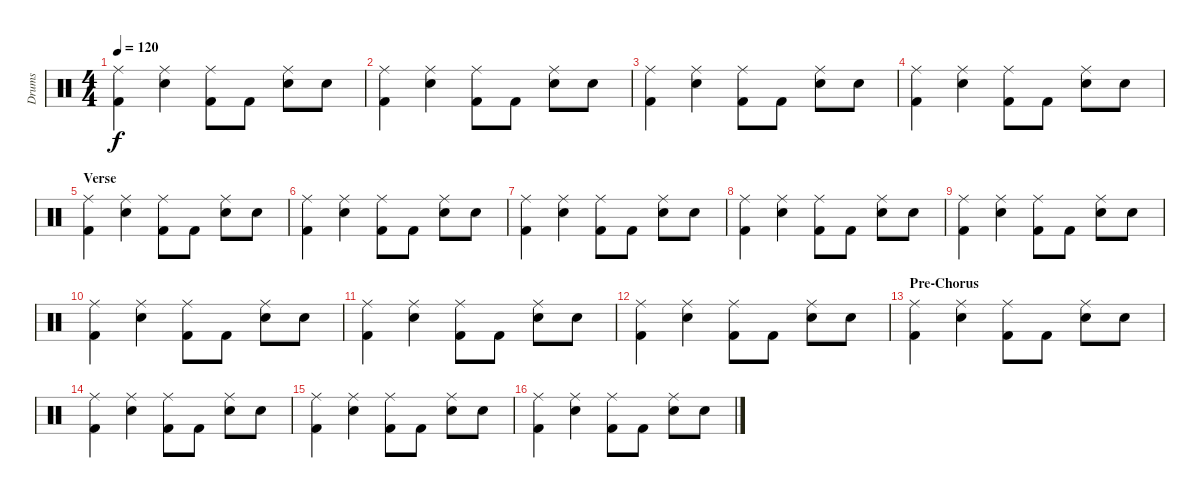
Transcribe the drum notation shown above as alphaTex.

\track ("Drums" "Drums") {instrument percussion}
\staff {score}
\articulation defaults
\ts (4 4)
\tempo 120
\clef neutral
\ks c
("Ride (middle)" "Kick (hit) 2").4{dy f} ("Ride (middle)" "Snare (hit) 2").4 ("Ride (middle)" "Kick (hit) 2").8 "Kick (hit) 2".8 ("Ride (middle)" "Snare (hit) 2").8 "Snare (hit) 2".8 |
("Ride (middle)" "Kick (hit) 2").4 ("Ride (middle)" "Snare (hit) 2").4 ("Ride (middle)" "Kick (hit) 2").8 "Kick (hit) 2".8 ("Ride (middle)" "Snare (hit) 2").8 "Snare (hit) 2".8 |
("Ride (middle)" "Kick (hit) 2").4 ("Ride (middle)" "Snare (hit) 2").4 ("Ride (middle)" "Kick (hit) 2").8 "Kick (hit) 2".8 ("Ride (middle)" "Snare (hit) 2").8 "Snare (hit) 2".8 |
("Ride (middle)" "Kick (hit) 2").4 ("Ride (middle)" "Snare (hit) 2").4 ("Ride (middle)" "Kick (hit) 2").8 "Kick (hit) 2".8 ("Ride (middle)" "Snare (hit) 2").8 "Snare (hit) 2".8 |
\section ("" "Verse")
("Ride (middle)" "Kick (hit) 2").4 ("Ride (middle)" "Snare (hit) 2").4 ("Ride (middle)" "Kick (hit) 2").8 "Kick (hit) 2".8 ("Ride (middle)" "Snare (hit) 2").8 "Snare (hit) 2".8 |
("Ride (middle)" "Kick (hit) 2").4 ("Ride (middle)" "Snare (hit) 2").4 ("Ride (middle)" "Kick (hit) 2").8 "Kick (hit) 2".8 ("Ride (middle)" "Snare (hit) 2").8 "Snare (hit) 2".8 |
("Ride (middle)" "Kick (hit) 2").4 ("Ride (middle)" "Snare (hit) 2").4 ("Ride (middle)" "Kick (hit) 2").8 "Kick (hit) 2".8 ("Ride (middle)" "Snare (hit) 2").8 "Snare (hit) 2".8 |
("Ride (middle)" "Kick (hit) 2").4 ("Ride (middle)" "Snare (hit) 2").4 ("Ride (middle)" "Kick (hit) 2").8 "Kick (hit) 2".8 ("Ride (middle)" "Snare (hit) 2").8 "Snare (hit) 2".8 |
("Ride (middle)" "Kick (hit) 2").4 ("Ride (middle)" "Snare (hit) 2").4 ("Ride (middle)" "Kick (hit) 2").8 "Kick (hit) 2".8 ("Ride (middle)" "Snare (hit) 2").8 "Snare (hit) 2".8 |
("Ride (middle)" "Kick (hit) 2").4 ("Ride (middle)" "Snare (hit) 2").4 ("Ride (middle)" "Kick (hit) 2").8 "Kick (hit) 2".8 ("Ride (middle)" "Snare (hit) 2").8 "Snare (hit) 2".8 |
("Ride (middle)" "Kick (hit) 2").4 ("Ride (middle)" "Snare (hit) 2").4 ("Ride (middle)" "Kick (hit) 2").8 "Kick (hit) 2".8 ("Ride (middle)" "Snare (hit) 2").8 "Snare (hit) 2".8 |
("Ride (middle)" "Kick (hit) 2").4 ("Ride (middle)" "Snare (hit) 2").4 ("Ride (middle)" "Kick (hit) 2").8 "Kick (hit) 2".8 ("Ride (middle)" "Snare (hit) 2").8 "Snare (hit) 2".8 |
\section ("" "Pre-Chorus")
("Ride (middle)" "Kick (hit) 2").4 ("Ride (middle)" "Snare (hit) 2").4 ("Ride (middle)" "Kick (hit) 2").8 "Kick (hit) 2".8 ("Ride (middle)" "Snare (hit) 2").8 "Snare (hit) 2".8 |
("Ride (middle)" "Kick (hit) 2").4 ("Ride (middle)" "Snare (hit) 2").4 ("Ride (middle)" "Kick (hit) 2").8 "Kick (hit) 2".8 ("Ride (middle)" "Snare (hit) 2").8 "Snare (hit) 2".8 |
("Ride (middle)" "Kick (hit) 2").4 ("Ride (middle)" "Snare (hit) 2").4 ("Ride (middle)" "Kick (hit) 2").8 "Kick (hit) 2".8 ("Ride (middle)" "Snare (hit) 2").8 "Snare (hit) 2".8 |
("Ride (middle)" "Kick (hit) 2").4 ("Ride (middle)" "Snare (hit) 2").4 ("Ride (middle)" "Kick (hit) 2").8 "Kick (hit) 2".8 ("Ride (middle)" "Snare (hit) 2").8 "Snare (hit) 2".8
